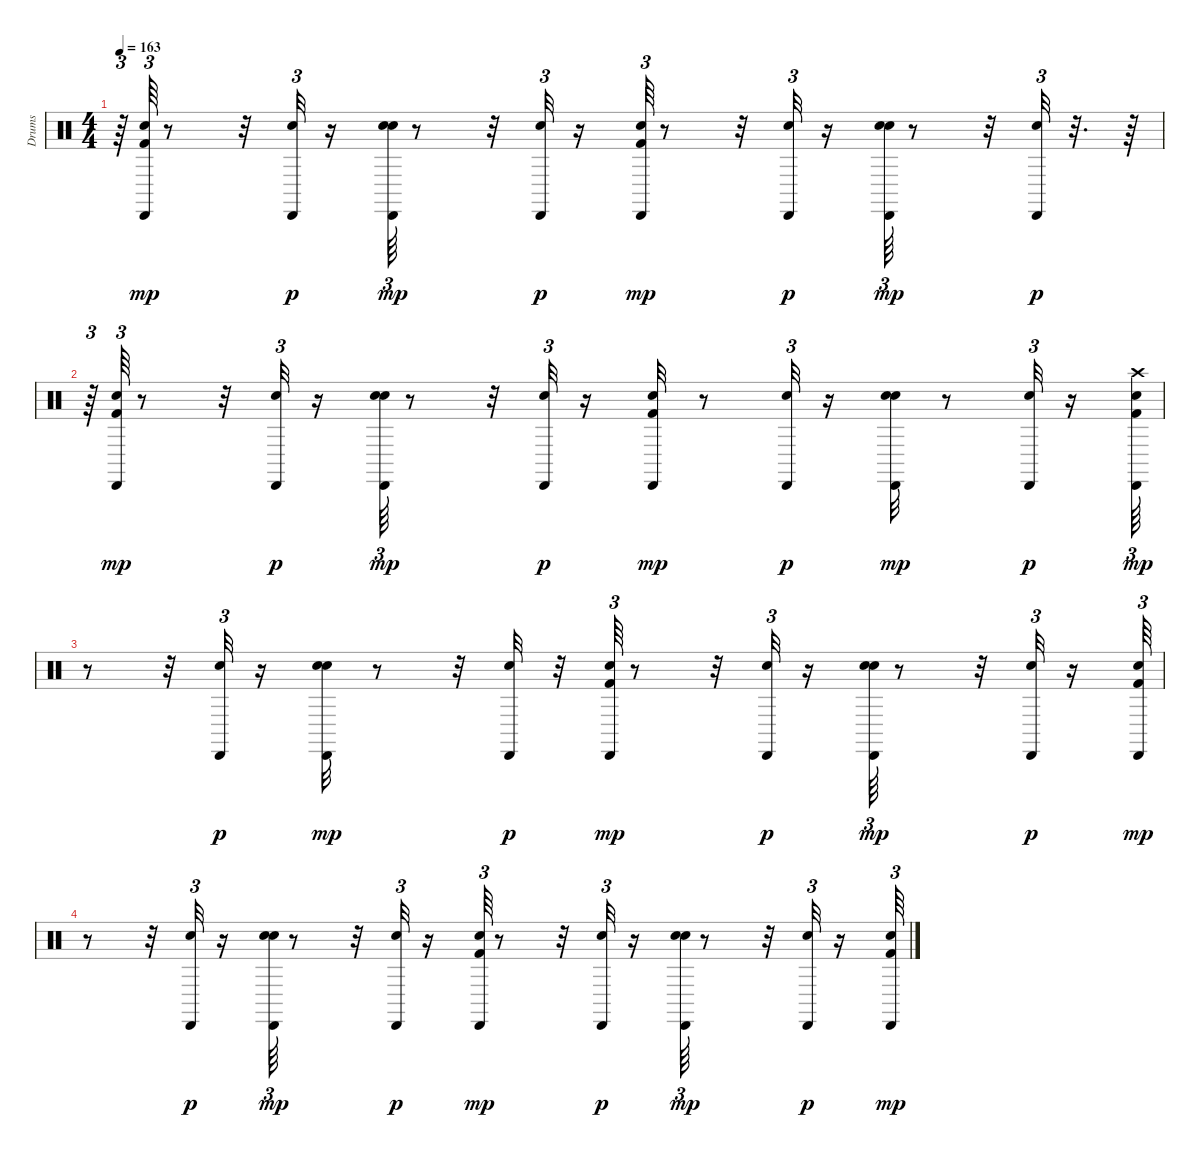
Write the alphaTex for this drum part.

\track ("Drums               " "Drums     ") {instrument percussion}
\staff {score}
\articulation defaults
\ts (4 4)
\tempo 163
\clef neutral
\ks c
r.64{tu (3 2) dy p} ("Kick (hit) 2" "Snare (hit) 2" "Cabasa (hit)").64{tu (3 2) dy mp} r.8 r.32 ("Snare (hit) 2" "Cabasa (hit)").32{tu (3 2) dy p} r.16 ("Snare (hit) 2" "Hand Clap (hit)" "Cabasa (hit)").64{tu (3 2) dy mp} r.8 r.32 ("Snare (hit) 2" "Cabasa (hit)").32{tu (3 2) dy p} r.16 ("Kick (hit) 2" "Snare (hit) 2" "Cabasa (hit)").64{tu (3 2) dy mp} r.8 r.32 ("Snare (hit) 2" "Cabasa (hit)").32{tu (3 2) dy p} r.16 ("Snare (hit) 2" "Hand Clap (hit)" "Cabasa (hit)").64{tu (3 2) dy mp} r.8 r.32 ("Snare (hit) 2" "Cabasa (hit)").32{tu (3 2) dy p} r.32{d} r.64 |
r.64{tu (3 2)} ("Kick (hit) 2" "Snare (hit) 2" "Cabasa (hit)").64{tu (3 2) dy mp} r.8 r.32 ("Snare (hit) 2" "Cabasa (hit)").32{tu (3 2) dy p} r.16 ("Snare (hit) 2" "Hand Clap (hit)" "Cabasa (hit)").64{tu (3 2) dy mp} r.8 r.32 ("Snare (hit) 2" "Cabasa (hit)").32{tu (3 2) dy p} r.16 ("Kick (hit) 2" "Snare (hit) 2" "Cabasa (hit)").32{dy mp} r.8 ("Snare (hit) 2" "Cabasa (hit)").32{tu (3 2) dy p} r.16 ("Snare (hit) 2" "Hand Clap (hit)" "Cabasa (hit)").32{dy mp} r.8 ("Snare (hit) 2" "Cabasa (hit)").32{tu (3 2) dy p} r.16 ("Kick (hit) 2" "Snare (hit) 2" "Crash high (hit)" "Cabasa (hit)").64{tu (3 2) dy mp} |
r.8 r.32 ("Snare (hit) 2" "Cabasa (hit)").32{tu (3 2) dy p} r.16 ("Snare (hit) 2" "Hand Clap (hit)" "Cabasa (hit)").32{dy mp} r.8 r.32 ("Snare (hit) 2" "Cabasa (hit)").32{dy p} r.32 ("Kick (hit) 2" "Snare (hit) 2" "Cabasa (hit)").64{tu (3 2) dy mp} r.8 r.32 ("Snare (hit) 2" "Cabasa (hit)").32{tu (3 2) dy p} r.16 ("Snare (hit) 2" "Hand Clap (hit)" "Cabasa (hit)").64{tu (3 2) dy mp} r.8 r.32 ("Snare (hit) 2" "Cabasa (hit)").32{tu (3 2) dy p} r.16 ("Kick (hit) 2" "Snare (hit) 2" "Cabasa (hit)").64{tu (3 2) dy mp} |
r.8 r.32 ("Snare (hit) 2" "Cabasa (hit)").32{tu (3 2) dy p} r.16 ("Snare (hit) 2" "Hand Clap (hit)" "Cabasa (hit)").64{tu (3 2) dy mp} r.8 r.32 ("Snare (hit) 2" "Cabasa (hit)").32{tu (3 2) dy p} r.16 ("Kick (hit) 2" "Snare (hit) 2" "Cabasa (hit)").64{tu (3 2) dy mp} r.8 r.32 ("Snare (hit) 2" "Cabasa (hit)").32{tu (3 2) dy p} r.16 ("Snare (hit) 2" "Hand Clap (hit)" "Cabasa (hit)").64{tu (3 2) dy mp} r.8 r.32 ("Snare (hit) 2" "Cabasa (hit)").32{tu (3 2) dy p} r.16 ("Kick (hit) 2" "Snare (hit) 2" "Cabasa (hit)").64{tu (3 2) dy mp}
